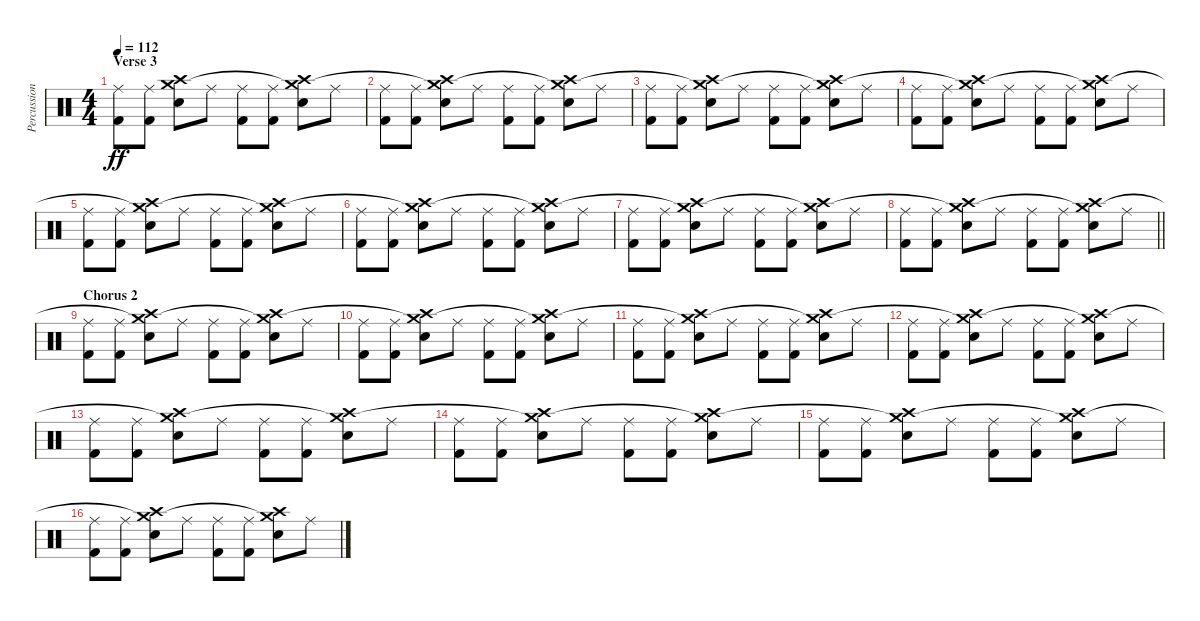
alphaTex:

\track ("Percussion" "Percussion") {instrument percussion}
\staff {score}
\articulation defaults
\ts (4 4)
\section ("" "Verse 3")
\tempo 112
\clef neutral
\ks c
("Kick (hit) 2" "Ride (middle)").8{dy ff} ("Kick (hit) 2" "Ride (middle)").8 ("Crash high (hit)" "Electric Snare (hit)" "Crash medium (hit)"{t}).8 "Ride (middle)".8 ("Kick (hit) 2" "Ride (middle)").8 ("Kick (hit) 2" "Ride (middle)").8 ("Crash high (hit)" "Electric Snare (hit)" "Crash medium (hit)"{t}).8 "Ride (middle)".8 |
("Kick (hit) 2" "Ride (middle)").8 ("Kick (hit) 2" "Ride (middle)").8 ("Crash high (hit)" "Electric Snare (hit)" "Crash medium (hit)"{t}).8 "Ride (middle)".8 ("Kick (hit) 2" "Ride (middle)").8 ("Kick (hit) 2" "Ride (middle)").8 ("Crash high (hit)" "Electric Snare (hit)" "Crash medium (hit)"{t}).8 "Ride (middle)".8 |
("Kick (hit) 2" "Ride (middle)").8 ("Kick (hit) 2" "Ride (middle)").8 ("Crash high (hit)" "Electric Snare (hit)" "Crash medium (hit)"{t}).8 "Ride (middle)".8 ("Kick (hit) 2" "Ride (middle)").8 ("Kick (hit) 2" "Ride (middle)").8 ("Crash high (hit)" "Electric Snare (hit)" "Crash medium (hit)"{t}).8 "Ride (middle)".8 |
("Kick (hit) 2" "Ride (middle)").8 ("Kick (hit) 2" "Ride (middle)").8 ("Crash high (hit)" "Electric Snare (hit)" "Crash medium (hit)"{t}).8 "Ride (middle)".8 ("Kick (hit) 2" "Ride (middle)").8 ("Kick (hit) 2" "Ride (middle)").8 ("Crash high (hit)" "Electric Snare (hit)" "Crash medium (hit)"{t}).8 "Ride (middle)".8 |
("Kick (hit) 2" "Ride (middle)").8 ("Kick (hit) 2" "Ride (middle)").8 ("Crash high (hit)" "Electric Snare (hit)" "Crash medium (hit)"{t}).8 "Ride (middle)".8 ("Kick (hit) 2" "Ride (middle)").8 ("Kick (hit) 2" "Ride (middle)").8 ("Crash high (hit)" "Electric Snare (hit)" "Crash medium (hit)"{t}).8 "Ride (middle)".8 |
("Kick (hit) 2" "Ride (middle)").8 ("Kick (hit) 2" "Ride (middle)").8 ("Crash high (hit)" "Electric Snare (hit)" "Crash medium (hit)"{t}).8 "Ride (middle)".8 ("Kick (hit) 2" "Ride (middle)").8 ("Kick (hit) 2" "Ride (middle)").8 ("Crash high (hit)" "Electric Snare (hit)" "Crash medium (hit)"{t}).8 "Ride (middle)".8 |
("Kick (hit) 2" "Ride (middle)").8 ("Kick (hit) 2" "Ride (middle)").8 ("Crash high (hit)" "Electric Snare (hit)" "Crash medium (hit)"{t}).8 "Ride (middle)".8 ("Kick (hit) 2" "Ride (middle)").8 ("Kick (hit) 2" "Ride (middle)").8 ("Crash high (hit)" "Electric Snare (hit)" "Crash medium (hit)"{t}).8 "Ride (middle)".8 |
\barLineRight lightlight
("Kick (hit) 2" "Ride (middle)").8 ("Kick (hit) 2" "Ride (middle)").8 ("Crash high (hit)" "Electric Snare (hit)" "Crash medium (hit)"{t}).8 "Ride (middle)".8 ("Kick (hit) 2" "Ride (middle)").8 ("Kick (hit) 2" "Ride (middle)").8 ("Crash high (hit)" "Electric Snare (hit)" "Crash medium (hit)"{t}).8 "Ride (middle)".8 |
\section ("" "Chorus 2")
("Kick (hit) 2" "Ride (middle)").8 ("Kick (hit) 2" "Ride (middle)").8 ("Crash high (hit)" "Electric Snare (hit)" "Crash medium (hit)"{t}).8 "Ride (middle)".8 ("Kick (hit) 2" "Ride (middle)").8 ("Kick (hit) 2" "Ride (middle)").8 ("Crash high (hit)" "Electric Snare (hit)" "Crash medium (hit)"{t}).8 "Ride (middle)".8 |
("Kick (hit) 2" "Ride (middle)").8 ("Kick (hit) 2" "Ride (middle)").8 ("Crash high (hit)" "Electric Snare (hit)" "Crash medium (hit)"{t}).8 "Ride (middle)".8 ("Kick (hit) 2" "Ride (middle)").8 ("Kick (hit) 2" "Ride (middle)").8 ("Crash high (hit)" "Electric Snare (hit)" "Crash medium (hit)"{t}).8 "Ride (middle)".8 |
("Kick (hit) 2" "Ride (middle)").8 ("Kick (hit) 2" "Ride (middle)").8 ("Crash high (hit)" "Electric Snare (hit)" "Crash medium (hit)"{t}).8 "Ride (middle)".8 ("Kick (hit) 2" "Ride (middle)").8 ("Kick (hit) 2" "Ride (middle)").8 ("Crash high (hit)" "Electric Snare (hit)" "Crash medium (hit)"{t}).8 "Ride (middle)".8 |
("Kick (hit) 2" "Ride (middle)").8 ("Kick (hit) 2" "Ride (middle)").8 ("Crash high (hit)" "Electric Snare (hit)" "Crash medium (hit)"{t}).8 "Ride (middle)".8 ("Kick (hit) 2" "Ride (middle)").8 ("Kick (hit) 2" "Ride (middle)").8 ("Crash high (hit)" "Electric Snare (hit)" "Crash medium (hit)"{t}).8 "Ride (middle)".8 |
("Kick (hit) 2" "Ride (middle)").8 ("Kick (hit) 2" "Ride (middle)").8 ("Crash high (hit)" "Electric Snare (hit)" "Crash medium (hit)"{t}).8 "Ride (middle)".8 ("Kick (hit) 2" "Ride (middle)").8 ("Kick (hit) 2" "Ride (middle)").8 ("Crash high (hit)" "Electric Snare (hit)" "Crash medium (hit)"{t}).8 "Ride (middle)".8 |
("Kick (hit) 2" "Ride (middle)").8 ("Kick (hit) 2" "Ride (middle)").8 ("Crash high (hit)" "Electric Snare (hit)" "Crash medium (hit)"{t}).8 "Ride (middle)".8 ("Kick (hit) 2" "Ride (middle)").8 ("Kick (hit) 2" "Ride (middle)").8 ("Crash high (hit)" "Electric Snare (hit)" "Crash medium (hit)"{t}).8 "Ride (middle)".8 |
("Kick (hit) 2" "Ride (middle)").8 ("Kick (hit) 2" "Ride (middle)").8 ("Crash high (hit)" "Electric Snare (hit)" "Crash medium (hit)"{t}).8 "Ride (middle)".8 ("Kick (hit) 2" "Ride (middle)").8 ("Kick (hit) 2" "Ride (middle)").8 ("Crash high (hit)" "Electric Snare (hit)" "Crash medium (hit)"{t}).8 "Ride (middle)".8 |
("Kick (hit) 2" "Ride (middle)").8 ("Kick (hit) 2" "Ride (middle)").8 ("Crash high (hit)" "Electric Snare (hit)" "Crash medium (hit)"{t}).8 "Ride (middle)".8 ("Kick (hit) 2" "Ride (middle)").8 ("Kick (hit) 2" "Ride (middle)").8 ("Crash high (hit)" "Electric Snare (hit)" "Crash medium (hit)"{t}).8 "Ride (middle)".8
